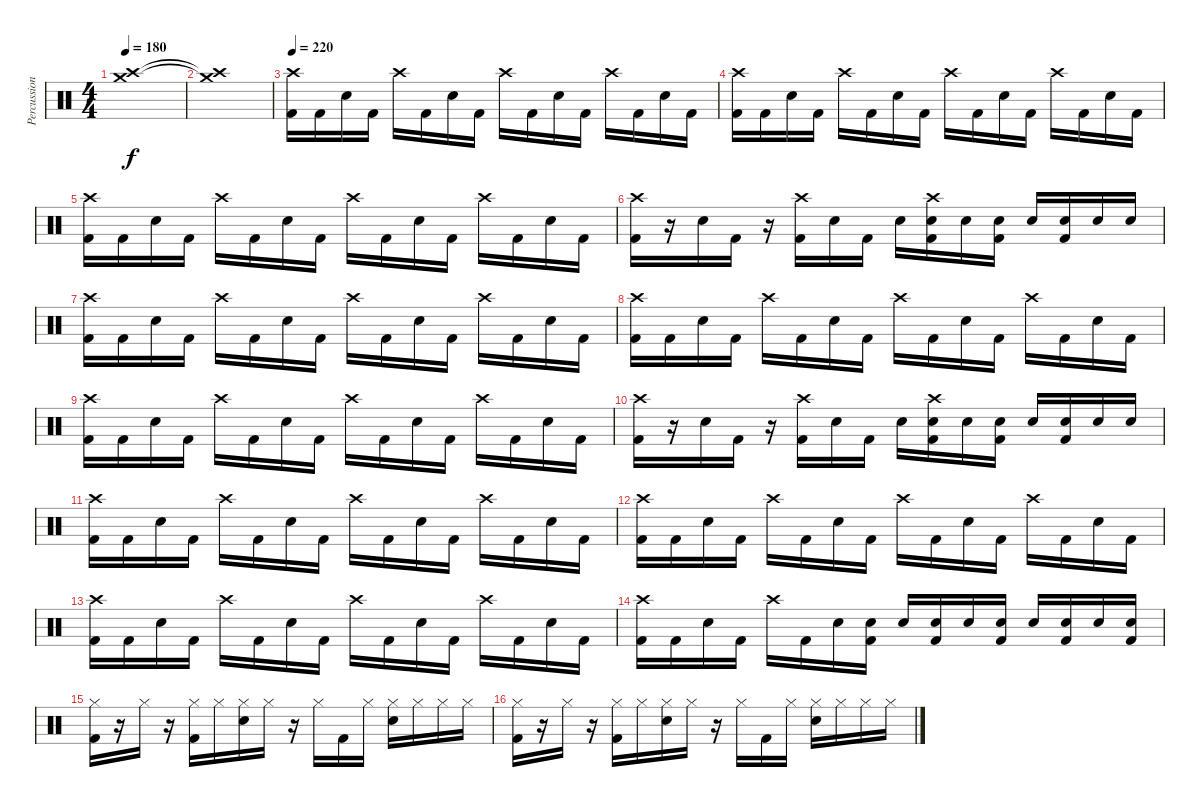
\track ("Percussion" "Percussion") {instrument percussion}
\staff {score}
\articulation defaults
\ts (4 4)
\tempo 180
\clef neutral
\ks c
("Crash high (hit)" "Crash medium (hit)").1{dy f} |
("Crash high (hit)"{t} "Crash medium (hit)"{t}).1 |
\tempo 220
("Crash high (hit)" "Kick (hit) 2").16 "Kick (hit) 2".16 "Electric Snare (hit)".16 "Kick (hit) 2".16 "Crash high (hit)".16 "Kick (hit) 2".16 "Electric Snare (hit)".16 "Kick (hit) 2".16 "Crash high (hit)".16 "Kick (hit) 2".16 "Electric Snare (hit)".16 "Kick (hit) 2".16 "Crash high (hit)".16 "Kick (hit) 2".16 "Electric Snare (hit)".16 "Kick (hit) 2".16 |
("Crash high (hit)" "Kick (hit) 2").16 "Kick (hit) 2".16 "Electric Snare (hit)".16 "Kick (hit) 2".16 "Crash high (hit)".16 "Kick (hit) 2".16 "Electric Snare (hit)".16 "Kick (hit) 2".16 "Crash high (hit)".16 "Kick (hit) 2".16 "Electric Snare (hit)".16 "Kick (hit) 2".16 "Crash high (hit)".16 "Kick (hit) 2".16 "Electric Snare (hit)".16 "Kick (hit) 2".16 |
("Crash high (hit)" "Kick (hit) 2").16 "Kick (hit) 2".16 "Electric Snare (hit)".16 "Kick (hit) 2".16 "Crash high (hit)".16 "Kick (hit) 2".16 "Electric Snare (hit)".16 "Kick (hit) 2".16 "Crash high (hit)".16 "Kick (hit) 2".16 "Electric Snare (hit)".16 "Kick (hit) 2".16 "Crash high (hit)".16 "Kick (hit) 2".16 "Electric Snare (hit)".16 "Kick (hit) 2".16 |
("Crash high (hit)" "Kick (hit) 2").16 r.16 "Electric Snare (hit)".16 "Kick (hit) 2".16 r.16 ("Crash high (hit)" "Kick (hit) 2").16 "Electric Snare (hit)".16 "Kick (hit) 2".16 "Electric Snare (hit)".16 ("Crash high (hit)" "Electric Snare (hit)" "Kick (hit) 2").16 "Electric Snare (hit)".16 ("Electric Snare (hit)" "Kick (hit) 2").16 "Electric Snare (hit)".16 ("Electric Snare (hit)" "Kick (hit) 2").16 "Electric Snare (hit)".16 "Electric Snare (hit)".16 |
("Crash high (hit)" "Kick (hit) 2").16 "Kick (hit) 2".16 "Electric Snare (hit)".16 "Kick (hit) 2".16 "Crash high (hit)".16 "Kick (hit) 2".16 "Electric Snare (hit)".16 "Kick (hit) 2".16 "Crash high (hit)".16 "Kick (hit) 2".16 "Electric Snare (hit)".16 "Kick (hit) 2".16 "Crash high (hit)".16 "Kick (hit) 2".16 "Electric Snare (hit)".16 "Kick (hit) 2".16 |
("Crash high (hit)" "Kick (hit) 2").16 "Kick (hit) 2".16 "Electric Snare (hit)".16 "Kick (hit) 2".16 "Crash high (hit)".16 "Kick (hit) 2".16 "Electric Snare (hit)".16 "Kick (hit) 2".16 "Crash high (hit)".16 "Kick (hit) 2".16 "Electric Snare (hit)".16 "Kick (hit) 2".16 "Crash high (hit)".16 "Kick (hit) 2".16 "Electric Snare (hit)".16 "Kick (hit) 2".16 |
("Crash high (hit)" "Kick (hit) 2").16 "Kick (hit) 2".16 "Electric Snare (hit)".16 "Kick (hit) 2".16 "Crash high (hit)".16 "Kick (hit) 2".16 "Electric Snare (hit)".16 "Kick (hit) 2".16 "Crash high (hit)".16 "Kick (hit) 2".16 "Electric Snare (hit)".16 "Kick (hit) 2".16 "Crash high (hit)".16 "Kick (hit) 2".16 "Electric Snare (hit)".16 "Kick (hit) 2".16 |
("Crash high (hit)" "Kick (hit) 2").16 r.16 "Electric Snare (hit)".16 "Kick (hit) 2".16 r.16 ("Crash high (hit)" "Kick (hit) 2").16 "Electric Snare (hit)".16 "Kick (hit) 2".16 "Electric Snare (hit)".16 ("Crash high (hit)" "Electric Snare (hit)" "Kick (hit) 2").16 "Electric Snare (hit)".16 ("Electric Snare (hit)" "Kick (hit) 2").16 "Electric Snare (hit)".16 ("Electric Snare (hit)" "Kick (hit) 2").16 "Electric Snare (hit)".16 "Electric Snare (hit)".16 |
("Crash high (hit)" "Kick (hit) 2").16 "Kick (hit) 2".16 "Electric Snare (hit)".16 "Kick (hit) 2".16 "Crash high (hit)".16 "Kick (hit) 2".16 "Electric Snare (hit)".16 "Kick (hit) 2".16 "Crash high (hit)".16 "Kick (hit) 2".16 "Electric Snare (hit)".16 "Kick (hit) 2".16 "Crash high (hit)".16 "Kick (hit) 2".16 "Electric Snare (hit)".16 "Kick (hit) 2".16 |
("Crash high (hit)" "Kick (hit) 2").16 "Kick (hit) 2".16 "Electric Snare (hit)".16 "Kick (hit) 2".16 "Crash high (hit)".16 "Kick (hit) 2".16 "Electric Snare (hit)".16 "Kick (hit) 2".16 "Crash high (hit)".16 "Kick (hit) 2".16 "Electric Snare (hit)".16 "Kick (hit) 2".16 "Crash high (hit)".16 "Kick (hit) 2".16 "Electric Snare (hit)".16 "Kick (hit) 2".16 |
("Crash high (hit)" "Kick (hit) 2").16 "Kick (hit) 2".16 "Electric Snare (hit)".16 "Kick (hit) 2".16 "Crash high (hit)".16 "Kick (hit) 2".16 "Electric Snare (hit)".16 "Kick (hit) 2".16 "Crash high (hit)".16 "Kick (hit) 2".16 "Electric Snare (hit)".16 "Kick (hit) 2".16 "Crash high (hit)".16 "Kick (hit) 2".16 "Electric Snare (hit)".16 "Kick (hit) 2".16 |
("Crash high (hit)" "Kick (hit) 2").16 "Kick (hit) 2".16 "Electric Snare (hit)".16 "Kick (hit) 2".16 "Crash high (hit)".16 "Kick (hit) 2".16 "Electric Snare (hit)".16 ("Electric Snare (hit)" "Kick (hit) 2").16 "Electric Snare (hit)".16 ("Electric Snare (hit)" "Kick (hit) 2").16 "Electric Snare (hit)".16 ("Electric Snare (hit)" "Kick (hit) 2").16 "Electric Snare (hit)".16 ("Electric Snare (hit)" "Kick (hit) 2").16 "Electric Snare (hit)".16 ("Electric Snare (hit)" "Kick (hit) 2").16 |
("Hi-Hat (closed)" "Kick (hit) 2").16 r.16 "Hi-Hat (closed)".16 r.16 ("Hi-Hat (closed)" "Kick (hit) 2").16 "Hi-Hat (closed)".16 ("Hi-Hat (closed)" "Electric Snare (hit)").16 "Hi-Hat (closed)".16 r.16 "Hi-Hat (closed)".16 "Kick (hit) 2".16 "Hi-Hat (closed)".16 ("Hi-Hat (closed)" "Electric Snare (hit)").16 "Hi-Hat (closed)".16 "Hi-Hat (closed)".16 "Hi-Hat (closed)".16 |
("Hi-Hat (closed)" "Kick (hit) 2").16 r.16 "Hi-Hat (closed)".16 r.16 ("Hi-Hat (closed)" "Kick (hit) 2").16 "Hi-Hat (closed)".16 ("Hi-Hat (closed)" "Electric Snare (hit)").16 "Hi-Hat (closed)".16 r.16 "Hi-Hat (closed)".16 "Kick (hit) 2".16 "Hi-Hat (closed)".16 ("Hi-Hat (closed)" "Electric Snare (hit)").16 "Hi-Hat (closed)".16 "Hi-Hat (closed)".16 "Hi-Hat (closed)".16
